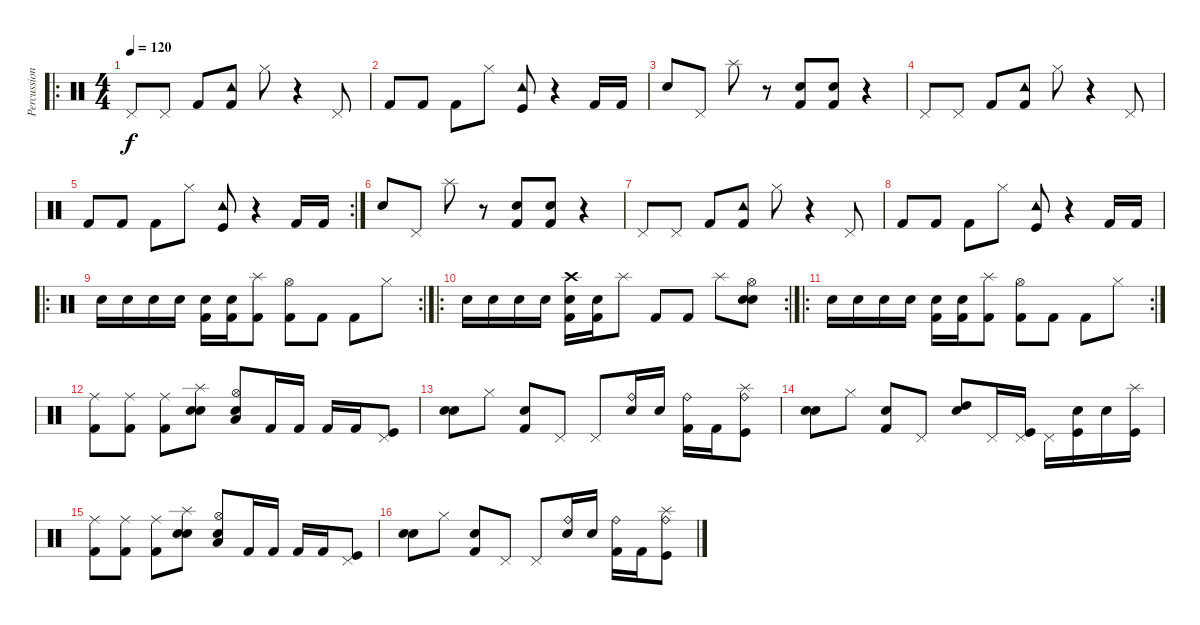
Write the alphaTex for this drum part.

\track ("Percussion" "Percussion") {instrument percussion}
\staff {score}
\articulation defaults
\ro
\ts (4 4)
\tempo 120
\clef neutral
\ks c "Pedal Hi-Hat (hit)".8{dy f} "Pedal Hi-Hat (hit)".8 "Kick (hit) 2".8
("Kick (hit) 2" "Tambourine (hit)").8 "Hi-Hat (closed)".8 r.4 "Pedal Hi-Hat (hit)".8 |
"Kick (hit) 2".8 "Kick (hit) 2".8 "Kick (hit) 2".8 "Hi-Hat (closed)".8 ("Kick (hit)" "Tambourine (hit)").8 r.4 "Kick (hit) 2".16 "Kick (hit) 2".16 |
"Electric Snare (hit)".8 "Pedal Hi-Hat (hit)".8 "Splash (hit)".8 r.8 ("Electric Snare (hit)" "Kick (hit) 2").8 ("Electric Snare (hit)" "Kick (hit) 2").8 r.4 |
"Pedal Hi-Hat (hit)".8 "Pedal Hi-Hat (hit)".8 "Kick (hit) 2".8 ("Kick (hit) 2" "Tambourine (hit)").8 "Hi-Hat (closed)".8 r.4 "Pedal Hi-Hat (hit)".8 |
\rc 2 "Kick (hit) 2".8 "Kick (hit) 2".8 "Kick (hit) 2".8 "Hi-Hat (closed)".8
("Kick (hit)" "Tambourine (hit)").8 r.4 "Kick (hit) 2".16 "Kick (hit) 2".16 |
"Electric Snare (hit)".8 "Pedal Hi-Hat (hit)".8 "Splash (hit)".8 r.8 ("Electric Snare (hit)" "Kick (hit) 2").8 ("Electric Snare (hit)" "Kick (hit) 2").8 r.4 |
"Pedal Hi-Hat (hit)".8 "Pedal Hi-Hat (hit)".8 "Kick (hit) 2".8 ("Kick (hit) 2" "Tambourine (hit)").8 "Hi-Hat (closed)".8 r.4 "Pedal Hi-Hat (hit)".8 |
"Kick (hit) 2".8 "Kick (hit) 2".8 "Kick (hit) 2".8 "Hi-Hat (closed)".8 ("Kick (hit)" "Tambourine (hit)").8 r.4 "Kick (hit) 2".16 "Kick (hit) 2".16 |
\ro
\rc 2 "Electric Snare (hit)".16 "Electric Snare (hit)".16 "Electric Snare (hit)".16 "Electric Snare (hit)".16
("Electric Snare (hit)" "Kick (hit) 2").16 ("Electric Snare (hit)" "Kick (hit) 2").16 ("Splash (hit)" "Kick (hit) 2").8 ("Hi-Hat (open)" "Kick (hit) 2").8 "Kick (hit) 2".8 "Kick (hit) 2".8 "Hi-Hat (closed)".8 |
\ro
\rc 2 "Electric Snare (hit)".16 "Electric Snare (hit)".16 "Electric Snare (hit)".16 "Electric Snare (hit)".16
("Crash high (hit)" "Electric Snare (hit)" "Kick (hit) 2").16 ("Electric Snare (hit)" "Kick (hit) 2").16 "Splash (hit)".8 "Kick (hit) 2".8 "Kick (hit) 2".8 "Splash (hit)".8 ("Hi-Hat (open)" "Snare (hit) 2" "Electric Snare (hit)").8 |
\ro
\rc 2 "Electric Snare (hit)".16 "Electric Snare (hit)".16 "Electric Snare (hit)".16 "Electric Snare (hit)".16
("Electric Snare (hit)" "Kick (hit) 2").16 ("Electric Snare (hit)" "Kick (hit) 2").16 ("Splash (hit)" "Kick (hit) 2").8 ("Hi-Hat (open)" "Kick (hit) 2").8 "Kick (hit) 2".8 "Kick (hit) 2".8 "Hi-Hat (closed)".8 |
("Ride (middle)" "Kick (hit) 2").8 ("Ride (middle)" "Kick (hit) 2").8 ("Ride (middle)" "Kick (hit) 2").8 ("Splash (hit)" "Snare (hit) 2" "Electric Snare (hit)").8 ("Hi-Hat (open)" "Low Tom (hit)" "Electric Snare (hit)").8 "Kick (hit) 2".16 "Kick (hit) 2".16 "Kick (hit) 2".16 "Kick (hit) 2".16 ("Pedal Hi-Hat (hit)" "Kick (hit)").8 |
("Electric Snare (hit)" "Snare (hit) 2").8 "Hi-Hat (closed)".8 ("Snare (hit) 2" "Kick (hit) 2").8 "Pedal Hi-Hat (hit)".8 "Pedal Hi-Hat (hit)".8 ("Electric Snare (hit)" "Ride (bell)").16 "Electric Snare (hit)".16 ("Kick (hit) 2" "Ride (bell)").16 "Kick (hit) 2".16 ("Splash (hit)" "Kick (hit)" "Ride (bell)").8 |
("Electric Snare (hit)" "Snare (hit) 2").8 "Hi-Hat (closed)".8 ("Snare (hit) 2" "Kick (hit) 2").8 "Pedal Hi-Hat (hit)".8 ("Electric Snare (hit)" "High Tom (hit)").8 "Pedal Hi-Hat (hit)".16 ("Pedal Hi-Hat (hit)" "Kick (hit)").16 "Pedal Hi-Hat (hit)".16 ("Snare (hit) 2" "Kick (hit)").16 "Snare (hit) 2".16 ("Splash (hit)" "Kick (hit)").16 |
("Ride (middle)" "Kick (hit) 2").8 ("Ride (middle)" "Kick (hit) 2").8 ("Ride (middle)" "Kick (hit) 2").8 ("Splash (hit)" "Snare (hit) 2" "Electric Snare (hit)").8 ("Hi-Hat (open)" "Low Tom (hit)" "Electric Snare (hit)").8 "Kick (hit) 2".16 "Kick (hit) 2".16 "Kick (hit) 2".16 "Kick (hit) 2".16 ("Pedal Hi-Hat (hit)" "Kick (hit)").8 |
("Electric Snare (hit)" "Snare (hit) 2").8 "Hi-Hat (closed)".8 ("Snare (hit) 2" "Kick (hit) 2").8 "Pedal Hi-Hat (hit)".8 "Pedal Hi-Hat (hit)".8 ("Electric Snare (hit)" "Ride (bell)").16 "Electric Snare (hit)".16 ("Kick (hit) 2" "Ride (bell)").16 "Kick (hit) 2".16 ("Splash (hit)" "Kick (hit)" "Ride (bell)").8
